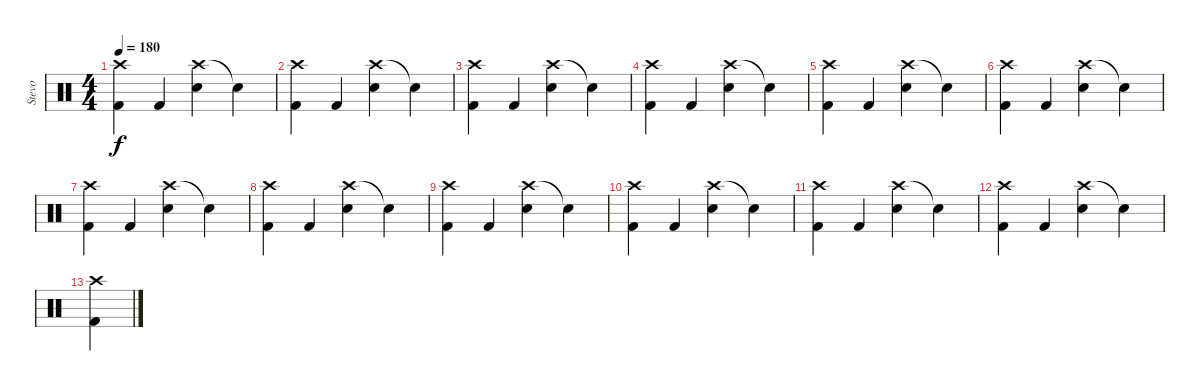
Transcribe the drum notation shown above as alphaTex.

\track ("Stevo" "Stevo") {instrument percussion}
\staff {score}
\articulation defaults
\ts (4 4)
\tempo 180
\clef neutral
\ks c
("Crash high (hit)" "Kick (hit) 2").4{dy f} "Kick (hit) 2".4 ("Crash high (hit)" "Electric Snare (hit)").4 "Snare (hit)"{t}.4 |
("Crash high (hit)" "Kick (hit) 2").4 "Kick (hit) 2".4 ("Crash high (hit)" "Electric Snare (hit)").4 "Snare (hit)"{t}.4 |
("Crash high (hit)" "Kick (hit) 2").4 "Kick (hit) 2".4 ("Crash high (hit)" "Electric Snare (hit)").4 "Snare (hit)"{t}.4 |
("Crash high (hit)" "Kick (hit) 2").4 "Kick (hit) 2".4 ("Crash high (hit)" "Electric Snare (hit)").4 "Snare (hit)"{t}.4 |
("Crash high (hit)" "Kick (hit) 2").4 "Kick (hit) 2".4 ("Crash high (hit)" "Electric Snare (hit)").4 "Snare (hit)"{t}.4 |
("Crash high (hit)" "Kick (hit) 2").4 "Kick (hit) 2".4 ("Crash high (hit)" "Electric Snare (hit)").4 "Snare (hit)"{t}.4 |
("Crash high (hit)" "Kick (hit) 2").4 "Kick (hit) 2".4 ("Crash high (hit)" "Electric Snare (hit)").4 "Snare (hit)"{t}.4 |
("Crash high (hit)" "Kick (hit) 2").4 "Kick (hit) 2".4 ("Crash high (hit)" "Electric Snare (hit)").4 "Snare (hit)"{t}.4 |
("Crash high (hit)" "Kick (hit) 2").4 "Kick (hit) 2".4 ("Crash high (hit)" "Electric Snare (hit)").4 "Snare (hit)"{t}.4 |
("Crash high (hit)" "Kick (hit) 2").4 "Kick (hit) 2".4 ("Crash high (hit)" "Electric Snare (hit)").4 "Snare (hit)"{t}.4 |
("Crash high (hit)" "Kick (hit) 2").4 "Kick (hit) 2".4 ("Crash high (hit)" "Electric Snare (hit)").4 "Snare (hit)"{t}.4 |
("Crash high (hit)" "Kick (hit) 2").4 "Kick (hit) 2".4 ("Crash high (hit)" "Electric Snare (hit)").4 "Snare (hit)"{t}.4 |
("Crash high (hit)" "Kick (hit) 2").4
